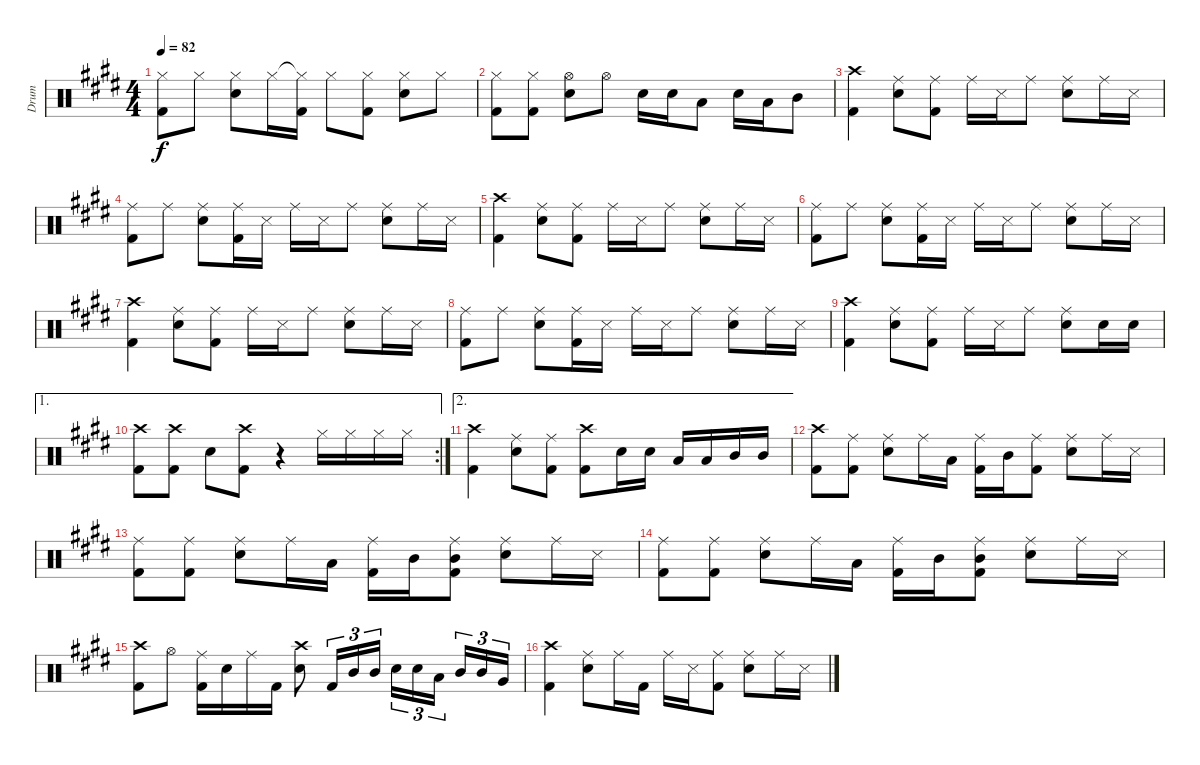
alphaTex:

\track ("Drum" "Drum") {instrument percussion}
\staff {score}
\articulation defaults
\ts (4 4)
\tempo 82
\clef neutral
\ks e
("Hi-Hat (closed)" "Kick (hit) 2").8{dy f} "Hi-Hat (closed)".8 ("Hi-Hat (closed)" "Snare (hit) 2").8 "Hi-Hat (closed)".16 ("Hi-Hat (closed)"{t} "Kick (hit) 2").16 "Hi-Hat (closed)".8 ("Hi-Hat (closed)" "Kick (hit) 2").8 ("Hi-Hat (closed)" "Snare (hit) 2").8 "Hi-Hat (closed)".8 |
("Hi-Hat (closed)" "Kick (hit) 2").8 ("Hi-Hat (closed)" "Kick (hit) 2").8 ("Hi-Hat (open)" "Snare (hit) 2").8 "Hi-Hat (open)".8 "Snare (hit) 2".16 "Snare (hit) 2".16 "Low Tom (hit)".8 "Snare (hit) 2".16 "Low Tom (hit)".16 "Mid Tom (hit)".8 |
("Crash high (hit)" "Kick (hit) 2").4 ("Ride (middle)" "Snare (hit) 2").8 ("Ride (middle)" "Kick (hit) 2").8 "Ride (middle)".16 "Snare (side stick) 3".16 "Ride (middle)".8 ("Ride (middle)" "Snare (hit) 2").8 "Ride (middle)".16 "Snare (side stick) 3".16 |
("Ride (middle)" "Kick (hit) 2").8 "Ride (middle)".8 ("Ride (middle)" "Snare (hit) 2").8 ("Ride (middle)" "Kick (hit) 2").16 "Snare (side stick) 3".16 "Ride (middle)".16 "Snare (side stick) 3".16 "Ride (middle)".8 ("Ride (middle)" "Snare (hit) 2").8 "Ride (middle)".16 "Snare (side stick) 3".16 |
("Crash high (hit)" "Kick (hit) 2").4 ("Ride (middle)" "Snare (hit) 2").8 ("Ride (middle)" "Kick (hit) 2").8 "Ride (middle)".16 "Snare (side stick) 3".16 "Ride (middle)".8 ("Ride (middle)" "Snare (hit) 2").8 "Ride (middle)".16 "Snare (side stick) 3".16 |
("Ride (middle)" "Kick (hit) 2").8 "Ride (middle)".8 ("Ride (middle)" "Snare (hit) 2").8 ("Ride (middle)" "Kick (hit) 2").16 "Snare (side stick) 3".16 "Ride (middle)".16 "Snare (side stick) 3".16 "Ride (middle)".8 ("Ride (middle)" "Snare (hit) 2").8 "Ride (middle)".16 "Snare (side stick) 3".16 |
("Crash high (hit)" "Kick (hit) 2").4 ("Ride (middle)" "Snare (hit) 2").8 ("Ride (middle)" "Kick (hit) 2").8 "Ride (middle)".16 "Snare (side stick) 3".16 "Ride (middle)".8 ("Ride (middle)" "Snare (hit) 2").8 "Ride (middle)".16 "Snare (side stick) 3".16 |
("Ride (middle)" "Kick (hit) 2").8 "Ride (middle)".8 ("Ride (middle)" "Snare (hit) 2").8 ("Ride (middle)" "Kick (hit) 2").16 "Snare (side stick) 3".16 "Ride (middle)".16 "Snare (side stick) 3".16 "Ride (middle)".8 ("Ride (middle)" "Snare (hit) 2").8 "Ride (middle)".16 "Snare (side stick) 3".16 |
("Crash high (hit)" "Kick (hit) 2").4 ("Ride (middle)" "Snare (hit) 2").8 ("Ride (middle)" "Kick (hit) 2").8 "Ride (middle)".16 "Snare (side stick) 3".16 "Ride (middle)".8 ("Ride (middle)" "Snare (hit) 2").8 "Snare (hit) 2".16 "Snare (hit) 2".16 |
\ae 1
\rc 2
("Crash high (hit)" "Kick (hit) 2").8 ("Crash high (hit)" "Kick (hit) 2").8 "Snare (hit) 2".8 ("Crash high (hit)" "Kick (hit) 2").8 r.4 "Hi-Hat (closed)".16 "Hi-Hat (closed)".16 "Hi-Hat (closed)".16 "Hi-Hat (closed)".16 |
\ae 2
("Crash high (hit)" "Kick (hit) 2").4 ("Ride (middle)" "Snare (hit) 2").8 ("Ride (middle)" "Kick (hit) 2").8 ("Crash high (hit)" "Kick (hit) 2").8 "Snare (hit) 2".16 "Snare (hit) 2".16 "Low Tom (hit)".16 "Low Tom (hit)".16 "Mid Tom (hit)".16 "Mid Tom (hit)".16 |
("Crash high (hit)" "Kick (hit) 2").8 ("Ride (middle)" "Kick (hit) 2").8 ("Ride (middle)" "Snare (hit) 2").8 "Ride (middle)".16 "Low Tom (hit)".16 ("Ride (middle)" "Kick (hit) 2").16 "Mid Tom (hit)".16 ("Ride (middle)" "Kick (hit) 2").8 ("Ride (middle)" "Snare (hit) 2").8 "Ride (middle)".16 "Snare (side stick) 3".16 |
("Ride (middle)" "Kick (hit) 2").8 ("Ride (middle)" "Kick (hit) 2").8 ("Ride (middle)" "Snare (hit) 2").8 "Ride (middle)".16 "Low Tom (hit)".16 ("Ride (middle)" "Kick (hit) 2").16 "Mid Tom (hit)".16 ("Ride (middle)" "Kick (hit) 2" "Mid Tom (hit)").8 ("Ride (middle)" "Snare (hit) 2").8 "Ride (middle)".16 "Snare (side stick) 3".16 |
("Ride (middle)" "Kick (hit) 2").8 ("Ride (middle)" "Kick (hit) 2").8 ("Ride (middle)" "Snare (hit) 2").8 "Ride (middle)".16 "Low Tom (hit)".16 ("Ride (middle)" "Kick (hit) 2").16 "Mid Tom (hit)".16 ("Ride (middle)" "Kick (hit) 2" "Mid Tom (hit)").8 ("Ride (middle)" "Snare (hit) 2").8 "Ride (middle)".16 "Snare (side stick) 3".16 |
("Crash high (hit)" "Kick (hit) 2").8 "Hi-Hat (open)".8 ("Ride (middle)" "Kick (hit) 2").16 "Snare (hit) 2".16 "Ride (middle)".16 "Kick (hit) 2".16 ("Crash high (hit)" "Snare (hit) 2").8 "Kick (hit) 2".16{tu (3 2)} "Mid Tom (hit)".16{tu (3 2)} "Mid Tom (hit)".16{tu (3 2)} "Snare (hit) 2".16{tu (3 2)} "Snare (hit) 2".16{tu (3 2)} "Low Tom (hit)".16{tu (3 2)} "Mid Tom (hit)".16{tu (3 2)} "Mid Tom (hit)".16{tu (3 2)} "Very Low Tom (hit)".16{tu (3 2)} |
("Crash high (hit)" "Kick (hit) 2").4 ("Ride (middle)" "Snare (hit) 2").8 "Ride (middle)".16 "Kick (hit) 2".16 "Ride (middle)".16 "Snare (side stick) 3".16 ("Ride (middle)" "Kick (hit) 2").8 ("Ride (middle)" "Snare (hit) 2").8 "Ride (middle)".16 "Snare (side stick) 3".16
